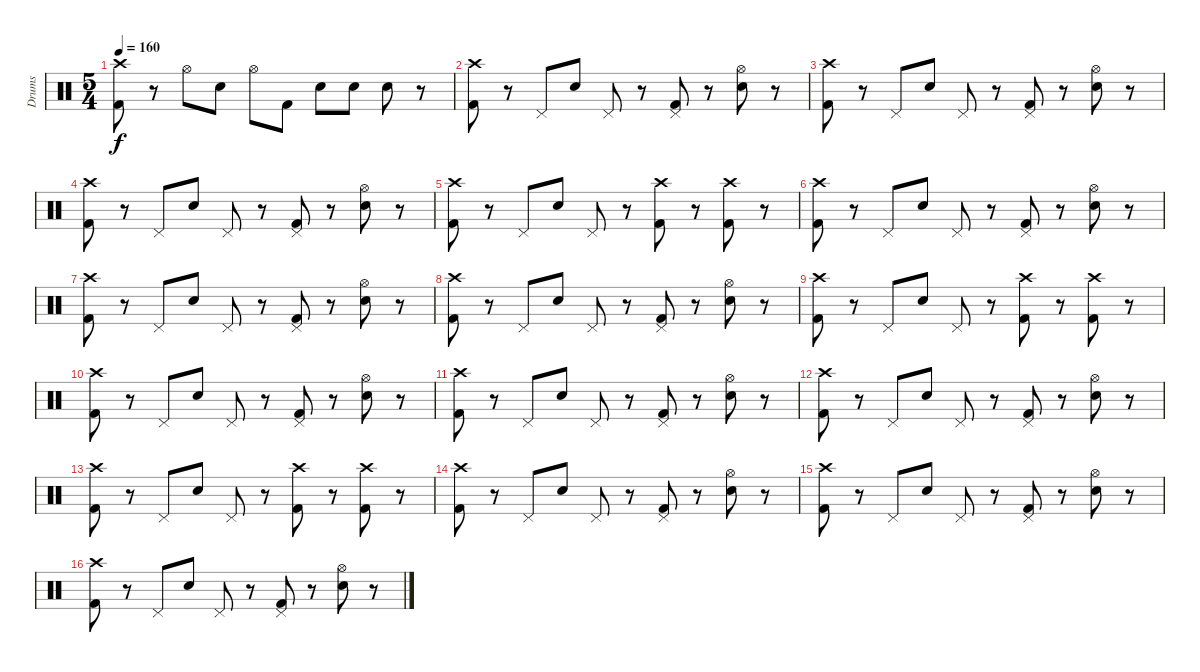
\track ("Drums" "Drums") {instrument percussion}
\staff {score}
\articulation defaults
\ts (5 4)
\tempo 160
\clef neutral
\ks c
("Crash high (hit)" "Kick (hit) 2").8{dy f} r.8 "Hi-Hat (open)".8 "Electric Snare (hit)".8 "Hi-Hat (open)".8 "Kick (hit) 2".8 "Electric Snare (hit)".8 "Electric Snare (hit)".8 "Electric Snare (hit)".8 r.8 |
("Crash high (hit)" "Kick (hit) 2").8 r.8 "Pedal Hi-Hat (hit)".8 "Electric Snare (hit)".8 "Pedal Hi-Hat (hit)".8 r.8 ("Pedal Hi-Hat (hit)" "Kick (hit) 2").8 r.8 ("Hi-Hat (open)" "Electric Snare (hit)").8 r.8 |
("Crash high (hit)" "Kick (hit) 2").8 r.8 "Pedal Hi-Hat (hit)".8 "Electric Snare (hit)".8 "Pedal Hi-Hat (hit)".8 r.8 ("Pedal Hi-Hat (hit)" "Kick (hit) 2").8 r.8 ("Hi-Hat (open)" "Electric Snare (hit)").8 r.8 |
("Crash high (hit)" "Kick (hit) 2").8 r.8 "Pedal Hi-Hat (hit)".8 "Electric Snare (hit)".8 "Pedal Hi-Hat (hit)".8 r.8 ("Pedal Hi-Hat (hit)" "Kick (hit) 2").8 r.8 ("Hi-Hat (open)" "Electric Snare (hit)").8 r.8 |
("Crash high (hit)" "Kick (hit) 2").8 r.8 "Pedal Hi-Hat (hit)".8 "Electric Snare (hit)".8 "Pedal Hi-Hat (hit)".8 r.8 ("Crash high (hit)" "Kick (hit) 2").8 r.8 ("Crash high (hit)" "Kick (hit) 2").8 r.8 |
("Crash high (hit)" "Kick (hit) 2").8 r.8 "Pedal Hi-Hat (hit)".8 "Electric Snare (hit)".8 "Pedal Hi-Hat (hit)".8 r.8 ("Pedal Hi-Hat (hit)" "Kick (hit) 2").8 r.8 ("Hi-Hat (open)" "Electric Snare (hit)").8 r.8 |
("Crash high (hit)" "Kick (hit) 2").8 r.8 "Pedal Hi-Hat (hit)".8 "Electric Snare (hit)".8 "Pedal Hi-Hat (hit)".8 r.8 ("Pedal Hi-Hat (hit)" "Kick (hit) 2").8 r.8 ("Hi-Hat (open)" "Electric Snare (hit)").8 r.8 |
("Crash high (hit)" "Kick (hit) 2").8 r.8 "Pedal Hi-Hat (hit)".8 "Electric Snare (hit)".8 "Pedal Hi-Hat (hit)".8 r.8 ("Pedal Hi-Hat (hit)" "Kick (hit) 2").8 r.8 ("Hi-Hat (open)" "Electric Snare (hit)").8 r.8 |
("Crash high (hit)" "Kick (hit) 2").8 r.8 "Pedal Hi-Hat (hit)".8 "Electric Snare (hit)".8 "Pedal Hi-Hat (hit)".8 r.8 ("Crash high (hit)" "Kick (hit) 2").8 r.8 ("Crash high (hit)" "Kick (hit) 2").8 r.8 |
("Crash high (hit)" "Kick (hit) 2").8 r.8 "Pedal Hi-Hat (hit)".8 "Electric Snare (hit)".8 "Pedal Hi-Hat (hit)".8 r.8 ("Pedal Hi-Hat (hit)" "Kick (hit) 2").8 r.8 ("Hi-Hat (open)" "Electric Snare (hit)").8 r.8 |
("Crash high (hit)" "Kick (hit) 2").8 r.8 "Pedal Hi-Hat (hit)".8 "Electric Snare (hit)".8 "Pedal Hi-Hat (hit)".8 r.8 ("Pedal Hi-Hat (hit)" "Kick (hit) 2").8 r.8 ("Hi-Hat (open)" "Electric Snare (hit)").8 r.8 |
("Crash high (hit)" "Kick (hit) 2").8 r.8 "Pedal Hi-Hat (hit)".8 "Electric Snare (hit)".8 "Pedal Hi-Hat (hit)".8 r.8 ("Pedal Hi-Hat (hit)" "Kick (hit) 2").8 r.8 ("Hi-Hat (open)" "Electric Snare (hit)").8 r.8 |
("Crash high (hit)" "Kick (hit) 2").8 r.8 "Pedal Hi-Hat (hit)".8 "Electric Snare (hit)".8 "Pedal Hi-Hat (hit)".8 r.8 ("Crash high (hit)" "Kick (hit) 2").8 r.8 ("Crash high (hit)" "Kick (hit) 2").8 r.8 |
("Crash high (hit)" "Kick (hit) 2").8 r.8 "Pedal Hi-Hat (hit)".8 "Electric Snare (hit)".8 "Pedal Hi-Hat (hit)".8 r.8 ("Pedal Hi-Hat (hit)" "Kick (hit) 2").8 r.8 ("Hi-Hat (open)" "Electric Snare (hit)").8 r.8 |
("Crash high (hit)" "Kick (hit) 2").8 r.8 "Pedal Hi-Hat (hit)".8 "Electric Snare (hit)".8 "Pedal Hi-Hat (hit)".8 r.8 ("Pedal Hi-Hat (hit)" "Kick (hit) 2").8 r.8 ("Hi-Hat (open)" "Electric Snare (hit)").8 r.8 |
("Crash high (hit)" "Kick (hit) 2").8 r.8 "Pedal Hi-Hat (hit)".8 "Electric Snare (hit)".8 "Pedal Hi-Hat (hit)".8 r.8 ("Pedal Hi-Hat (hit)" "Kick (hit) 2").8 r.8 ("Hi-Hat (open)" "Electric Snare (hit)").8 r.8
